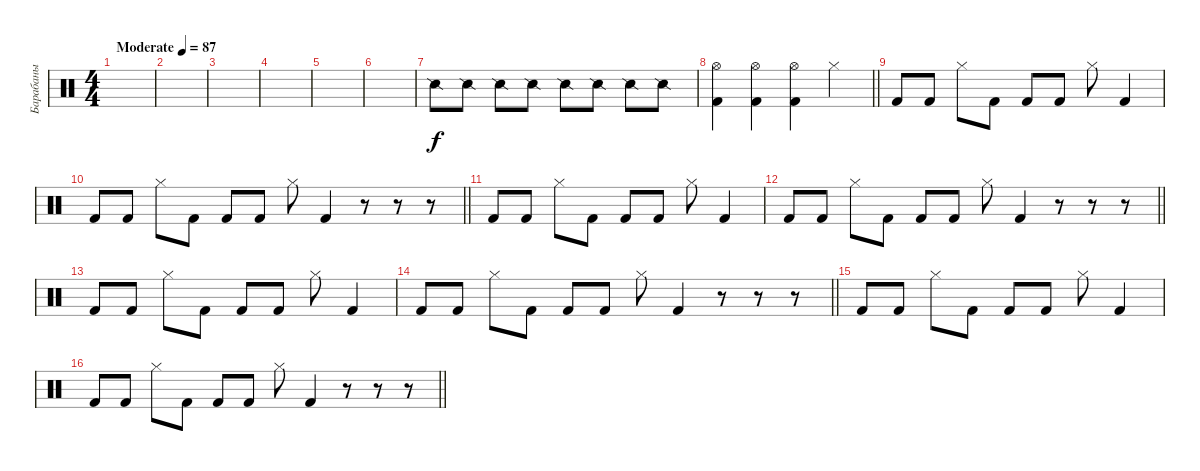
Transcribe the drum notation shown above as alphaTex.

\track ("Барабаны" "Барабаны") {instrument percussion}
\staff {score}
\articulation defaults
\ts (4 4)
\tempo (87 "Moderate")
\clef neutral
\ks c
|
|
|
|
|
|
"Snare (side stick) 2".8 "Snare (side stick) 2".8 "Snare (side stick) 2".8 "Snare (side stick) 2".8 "Snare (side stick) 2".8 "Snare (side stick) 2".8 "Snare (side stick) 2".8 "Snare (side stick) 2".8 |
\barLineRight lightlight
("Kick (hit) 2" "Hi-Hat (open)").4 ("Kick (hit) 2" "Hi-Hat (open)").4 ("Kick (hit) 2" "Hi-Hat (open)").4 "Hi-Hat (closed)".4 |
"Kick (hit) 2".8 "Kick (hit) 2".8 "Hi-Hat (closed)".8 "Kick (hit) 2".8 "Kick (hit) 2".8 "Kick (hit) 2".8 "Hi-Hat (closed)".8 "Kick (hit) 2".4 |
\barLineRight lightlight "Kick (hit) 2".8 "Kick (hit) 2".8 "Hi-Hat (closed)".8 "Kick (hit) 2".8 "Kick (hit) 2".8 "Kick (hit) 2".8 "Hi-Hat (closed)".8 "Kick (hit) 2".4
r.8 r.8 r.8 |
"Kick (hit) 2".8 "Kick (hit) 2".8 "Hi-Hat (closed)".8 "Kick (hit) 2".8 "Kick (hit) 2".8 "Kick (hit) 2".8 "Hi-Hat (closed)".8 "Kick (hit) 2".4 |
\barLineRight lightlight "Kick (hit) 2".8 "Kick (hit) 2".8 "Hi-Hat (closed)".8 "Kick (hit) 2".8 "Kick (hit) 2".8 "Kick (hit) 2".8 "Hi-Hat (closed)".8 "Kick (hit) 2".4
r.8 r.8 r.8 |
"Kick (hit) 2".8 "Kick (hit) 2".8 "Hi-Hat (closed)".8 "Kick (hit) 2".8 "Kick (hit) 2".8 "Kick (hit) 2".8 "Hi-Hat (closed)".8 "Kick (hit) 2".4 |
\barLineRight lightlight "Kick (hit) 2".8 "Kick (hit) 2".8 "Hi-Hat (closed)".8 "Kick (hit) 2".8 "Kick (hit) 2".8 "Kick (hit) 2".8 "Hi-Hat (closed)".8 "Kick (hit) 2".4
r.8 r.8 r.8 |
"Kick (hit) 2".8 "Kick (hit) 2".8 "Hi-Hat (closed)".8 "Kick (hit) 2".8 "Kick (hit) 2".8 "Kick (hit) 2".8 "Hi-Hat (closed)".8 "Kick (hit) 2".4 |
\barLineRight lightlight "Kick (hit) 2".8 "Kick (hit) 2".8 "Hi-Hat (closed)".8 "Kick (hit) 2".8 "Kick (hit) 2".8 "Kick (hit) 2".8 "Hi-Hat (closed)".8 "Kick (hit) 2".4
r.8 r.8 r.8
